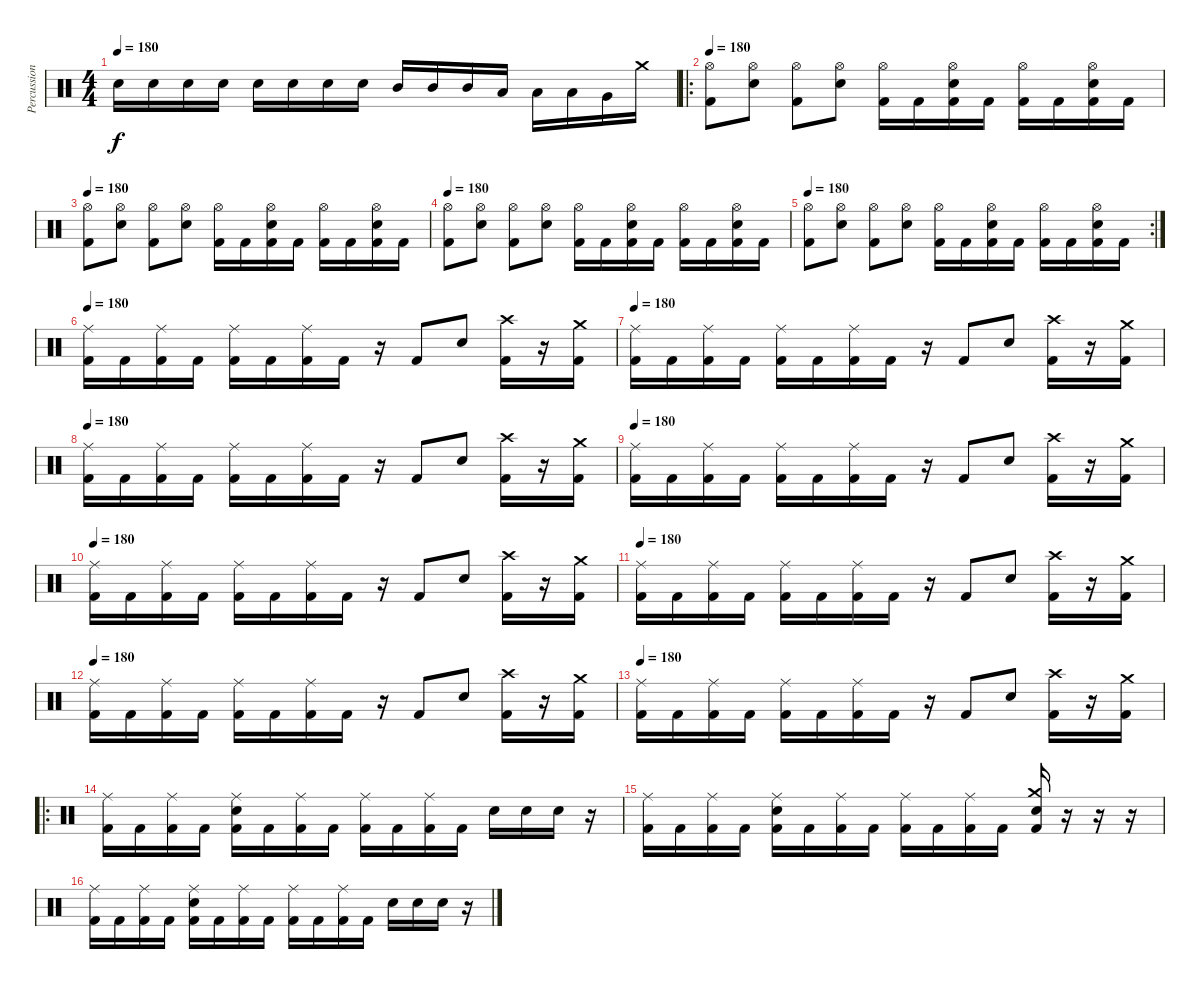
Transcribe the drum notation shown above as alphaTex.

\track ("Percussions" "Percussion") {instrument percussion}
\staff {score}
\articulation defaults
\ts (4 4)
\tempo 180
\clef neutral
\ks c "Electric Snare (hit)".16{dy f} "Electric Snare (hit)".16 "Electric Snare (hit)".16 "Electric Snare (hit)".16 "Snare (hit) 2".16 "Snare (hit) 2".16 "Snare (hit) 2".16 "Snare (hit) 2".16 "Mid Tom (hit)".16 "Mid Tom (hit)".16 "Mid Tom (hit)".16 "Low Tom (hit)".16 "Low Tom (hit)".16 "Low Tom (hit)".16 "Very Low Tom (hit)".16 "Crash medium (hit)".16
|
\ro
\tempo 180
("Hi-Hat (open)" "Kick (hit) 2").8 ("Hi-Hat (open)" "Electric Snare (hit)").8 ("Hi-Hat (open)" "Kick (hit) 2").8 ("Hi-Hat (open)" "Electric Snare (hit)").8 ("Kick (hit) 2" "Hi-Hat (open)").16 "Kick (hit) 2".16 ("Kick (hit) 2" "Electric Snare (hit)" "Hi-Hat (open)").16 "Kick (hit) 2".16 ("Kick (hit) 2" "Hi-Hat (open)").16 "Kick (hit) 2".16 ("Kick (hit) 2" "Electric Snare (hit)" "Hi-Hat (open)").16 "Kick (hit) 2".16 |
\tempo 180
("Hi-Hat (open)" "Kick (hit) 2").8 ("Hi-Hat (open)" "Electric Snare (hit)").8 ("Hi-Hat (open)" "Kick (hit) 2").8 ("Hi-Hat (open)" "Electric Snare (hit)").8 ("Kick (hit) 2" "Hi-Hat (open)").16 "Kick (hit) 2".16 ("Kick (hit) 2" "Electric Snare (hit)" "Hi-Hat (open)").16 "Kick (hit) 2".16 ("Kick (hit) 2" "Hi-Hat (open)").16 "Kick (hit) 2".16 ("Kick (hit) 2" "Electric Snare (hit)" "Hi-Hat (open)").16 "Kick (hit) 2".16 |
\tempo 180
("Hi-Hat (open)" "Kick (hit) 2").8 ("Hi-Hat (open)" "Electric Snare (hit)").8 ("Hi-Hat (open)" "Kick (hit) 2").8 ("Hi-Hat (open)" "Electric Snare (hit)").8 ("Kick (hit) 2" "Hi-Hat (open)").16 "Kick (hit) 2".16 ("Kick (hit) 2" "Electric Snare (hit)" "Hi-Hat (open)").16 "Kick (hit) 2".16 ("Kick (hit) 2" "Hi-Hat (open)").16 "Kick (hit) 2".16 ("Kick (hit) 2" "Electric Snare (hit)" "Hi-Hat (open)").16 "Kick (hit) 2".16 |
\rc 2
\tempo 180
("Hi-Hat (open)" "Kick (hit) 2").8 ("Hi-Hat (open)" "Electric Snare (hit)").8 ("Hi-Hat (open)" "Kick (hit) 2").8 ("Hi-Hat (open)" "Electric Snare (hit)").8 ("Kick (hit) 2" "Hi-Hat (open)").16 "Kick (hit) 2".16 ("Kick (hit) 2" "Electric Snare (hit)" "Hi-Hat (open)").16 "Kick (hit) 2".16 ("Kick (hit) 2" "Hi-Hat (open)").16 "Kick (hit) 2".16 ("Kick (hit) 2" "Electric Snare (hit)" "Hi-Hat (open)").16 "Kick (hit) 2".16 |
\tempo 180
("Kick (hit) 2" "Ride (middle)").16 "Kick (hit) 2".16 ("Kick (hit) 2" "Ride (middle)").16 "Kick (hit) 2".16 ("Kick (hit) 2" "Ride (middle)").16 "Kick (hit) 2".16 ("Kick (hit) 2" "Ride (middle)").16 "Kick (hit) 2".16 r.16 "Kick (hit) 2".8 "Electric Snare (hit)".8 ("Kick (hit) 2" "Crash high (hit)").16 r.16 ("Kick (hit) 2" "Crash medium (hit)").16 |
\tempo 180
("Kick (hit) 2" "Ride (middle)").16 "Kick (hit) 2".16 ("Kick (hit) 2" "Ride (middle)").16 "Kick (hit) 2".16 ("Kick (hit) 2" "Ride (middle)").16 "Kick (hit) 2".16 ("Kick (hit) 2" "Ride (middle)").16 "Kick (hit) 2".16 r.16 "Kick (hit) 2".8 "Electric Snare (hit)".8 ("Kick (hit) 2" "Crash high (hit)").16 r.16 ("Kick (hit) 2" "Crash medium (hit)").16 |
\tempo 180
("Kick (hit) 2" "Ride (middle)").16 "Kick (hit) 2".16 ("Kick (hit) 2" "Ride (middle)").16 "Kick (hit) 2".16 ("Kick (hit) 2" "Ride (middle)").16 "Kick (hit) 2".16 ("Kick (hit) 2" "Ride (middle)").16 "Kick (hit) 2".16 r.16 "Kick (hit) 2".8 "Electric Snare (hit)".8 ("Kick (hit) 2" "Crash high (hit)").16 r.16 ("Kick (hit) 2" "Crash medium (hit)").16 |
\tempo 180
("Kick (hit) 2" "Ride (middle)").16 "Kick (hit) 2".16 ("Kick (hit) 2" "Ride (middle)").16 "Kick (hit) 2".16 ("Kick (hit) 2" "Ride (middle)").16 "Kick (hit) 2".16 ("Kick (hit) 2" "Ride (middle)").16 "Kick (hit) 2".16 r.16 "Kick (hit) 2".8 "Electric Snare (hit)".8 ("Kick (hit) 2" "Crash high (hit)").16 r.16 ("Kick (hit) 2" "Crash medium (hit)").16 |
\tempo 180
("Kick (hit) 2" "Ride (middle)").16 "Kick (hit) 2".16 ("Kick (hit) 2" "Ride (middle)").16 "Kick (hit) 2".16 ("Kick (hit) 2" "Ride (middle)").16 "Kick (hit) 2".16 ("Kick (hit) 2" "Ride (middle)").16 "Kick (hit) 2".16 r.16 "Kick (hit) 2".8 "Electric Snare (hit)".8 ("Kick (hit) 2" "Crash high (hit)").16 r.16 ("Kick (hit) 2" "Crash medium (hit)").16 |
\tempo 180
("Kick (hit) 2" "Ride (middle)").16 "Kick (hit) 2".16 ("Kick (hit) 2" "Ride (middle)").16 "Kick (hit) 2".16 ("Kick (hit) 2" "Ride (middle)").16 "Kick (hit) 2".16 ("Kick (hit) 2" "Ride (middle)").16 "Kick (hit) 2".16 r.16 "Kick (hit) 2".8 "Electric Snare (hit)".8 ("Kick (hit) 2" "Crash high (hit)").16 r.16 ("Kick (hit) 2" "Crash medium (hit)").16 |
\tempo 180
("Kick (hit) 2" "Ride (middle)").16 "Kick (hit) 2".16 ("Kick (hit) 2" "Ride (middle)").16 "Kick (hit) 2".16 ("Kick (hit) 2" "Ride (middle)").16 "Kick (hit) 2".16 ("Kick (hit) 2" "Ride (middle)").16 "Kick (hit) 2".16 r.16 "Kick (hit) 2".8 "Electric Snare (hit)".8 ("Kick (hit) 2" "Crash high (hit)").16 r.16 ("Kick (hit) 2" "Crash medium (hit)").16 |
\tempo 180
("Kick (hit) 2" "Ride (middle)").16 "Kick (hit) 2".16 ("Kick (hit) 2" "Ride (middle)").16 "Kick (hit) 2".16 ("Kick (hit) 2" "Ride (middle)").16 "Kick (hit) 2".16 ("Kick (hit) 2" "Ride (middle)").16 "Kick (hit) 2".16 r.16 "Kick (hit) 2".8 "Electric Snare (hit)".8 ("Kick (hit) 2" "Crash high (hit)").16 r.16 ("Kick (hit) 2" "Crash medium (hit)").16 |
\ro
("Kick (hit) 2" "Ride (middle)").16 "Kick (hit) 2".16 ("Kick (hit) 2" "Ride (middle)").16 "Kick (hit) 2".16 ("Kick (hit) 2" "Electric Snare (hit)" "Ride (middle)").16 "Kick (hit) 2".16 ("Kick (hit) 2" "Ride (middle)").16 "Kick (hit) 2".16 ("Kick (hit) 2" "Ride (middle)").16 "Kick (hit) 2".16 ("Kick (hit) 2" "Ride (middle)").16 "Kick (hit) 2".16 "Electric Snare (hit)".16 "Electric Snare (hit)".16 "Electric Snare (hit)".16 r.16 |
("Kick (hit) 2" "Ride (middle)").16 "Kick (hit) 2".16 ("Kick (hit) 2" "Ride (middle)").16 "Kick (hit) 2".16 ("Kick (hit) 2" "Electric Snare (hit)" "Ride (middle)").16 "Kick (hit) 2".16 ("Kick (hit) 2" "Ride (middle)").16 "Kick (hit) 2".16 ("Kick (hit) 2" "Ride (middle)").16 "Kick (hit) 2".16 ("Kick (hit) 2" "Ride (middle)").16 "Kick (hit) 2".16 ("Kick (hit) 2" "Electric Snare (hit)" "Crash medium (hit)").16 r.16 r.16 r.16 |
("Kick (hit) 2" "Ride (middle)").16 "Kick (hit) 2".16 ("Kick (hit) 2" "Ride (middle)").16 "Kick (hit) 2".16 ("Kick (hit) 2" "Electric Snare (hit)" "Ride (middle)").16 "Kick (hit) 2".16 ("Kick (hit) 2" "Ride (middle)").16 "Kick (hit) 2".16 ("Kick (hit) 2" "Ride (middle)").16 "Kick (hit) 2".16 ("Kick (hit) 2" "Ride (middle)").16 "Kick (hit) 2".16 "Electric Snare (hit)".16 "Electric Snare (hit)".16 "Electric Snare (hit)".16 r.16
